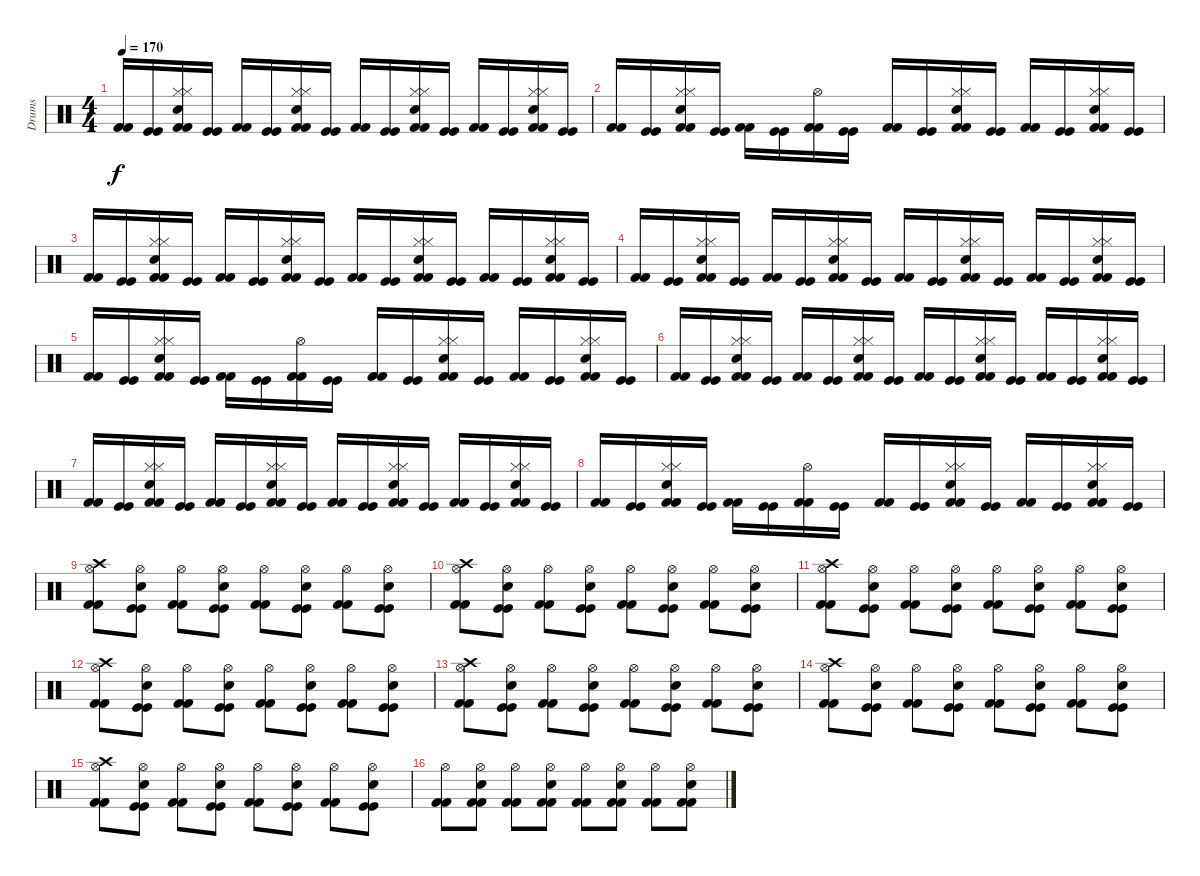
\track ("Drums" "Drums") {instrument percussion}
\staff {score}
\articulation defaults
\ts (4 4)
\tempo 170
\clef neutral
\ks c
("Kick (hit) 2" "Kick (hit) 2").16{dy f} ("Kick (hit)" "Kick (hit)").16 ("Hi-Hat (closed)" "Hi-Hat (closed)" "Electric Snare (hit)" "Kick (hit) 2" "Kick (hit) 2").16 ("Kick (hit)" "Kick (hit)").16 ("Kick (hit) 2" "Kick (hit) 2").16 ("Kick (hit)" "Kick (hit)").16 ("Hi-Hat (closed)" "Hi-Hat (closed)" "Electric Snare (hit)" "Kick (hit) 2" "Kick (hit) 2").16 ("Kick (hit)" "Kick (hit)").16 ("Kick (hit) 2" "Kick (hit) 2").16 ("Kick (hit)" "Kick (hit)").16 ("Hi-Hat (closed)" "Hi-Hat (closed)" "Electric Snare (hit)" "Kick (hit) 2" "Kick (hit) 2").16 ("Kick (hit)" "Kick (hit)").16 ("Kick (hit) 2" "Kick (hit) 2").16 ("Kick (hit)" "Kick (hit)").16 ("Hi-Hat (closed)" "Hi-Hat (closed)" "Electric Snare (hit)" "Kick (hit) 2" "Kick (hit) 2").16 ("Kick (hit)" "Kick (hit)").16 |
("Kick (hit) 2" "Kick (hit) 2").16 ("Kick (hit)" "Kick (hit)").16 ("Hi-Hat (closed)" "Hi-Hat (closed)" "Electric Snare (hit)" "Kick (hit) 2" "Kick (hit) 2").16 ("Kick (hit)" "Kick (hit)").16 ("Kick (hit) 2" "Kick (hit) 2").16 ("Kick (hit)" "Kick (hit)").16 ("Hi-Hat (open)" "Kick (hit) 2" "Kick (hit) 2").16 ("Kick (hit)" "Kick (hit)").16 ("Kick (hit) 2" "Kick (hit) 2").16 ("Kick (hit)" "Kick (hit)").16 ("Hi-Hat (closed)" "Hi-Hat (closed)" "Electric Snare (hit)" "Kick (hit) 2" "Kick (hit) 2").16 ("Kick (hit)" "Kick (hit)").16 ("Kick (hit) 2" "Kick (hit) 2").16 ("Kick (hit)" "Kick (hit)").16 ("Hi-Hat (closed)" "Hi-Hat (closed)" "Electric Snare (hit)" "Kick (hit) 2" "Kick (hit) 2").16 ("Kick (hit)" "Kick (hit)").16 |
("Kick (hit) 2" "Kick (hit) 2").16 ("Kick (hit)" "Kick (hit)").16 ("Hi-Hat (closed)" "Hi-Hat (closed)" "Electric Snare (hit)" "Kick (hit) 2" "Kick (hit) 2").16 ("Kick (hit)" "Kick (hit)").16 ("Kick (hit) 2" "Kick (hit) 2").16 ("Kick (hit)" "Kick (hit)").16 ("Hi-Hat (closed)" "Hi-Hat (closed)" "Electric Snare (hit)" "Kick (hit) 2" "Kick (hit) 2").16 ("Kick (hit)" "Kick (hit)").16 ("Kick (hit) 2" "Kick (hit) 2").16 ("Kick (hit)" "Kick (hit)").16 ("Hi-Hat (closed)" "Hi-Hat (closed)" "Electric Snare (hit)" "Kick (hit) 2" "Kick (hit) 2").16 ("Kick (hit)" "Kick (hit)").16 ("Kick (hit) 2" "Kick (hit) 2").16 ("Kick (hit)" "Kick (hit)").16 ("Hi-Hat (closed)" "Hi-Hat (closed)" "Electric Snare (hit)" "Kick (hit) 2" "Kick (hit) 2").16 ("Kick (hit)" "Kick (hit)").16 |
("Kick (hit) 2" "Kick (hit) 2").16 ("Kick (hit)" "Kick (hit)").16 ("Hi-Hat (closed)" "Hi-Hat (closed)" "Electric Snare (hit)" "Kick (hit) 2" "Kick (hit) 2").16 ("Kick (hit)" "Kick (hit)").16 ("Kick (hit) 2" "Kick (hit) 2").16 ("Kick (hit)" "Kick (hit)").16 ("Hi-Hat (closed)" "Hi-Hat (closed)" "Electric Snare (hit)" "Kick (hit) 2" "Kick (hit) 2").16 ("Kick (hit)" "Kick (hit)").16 ("Kick (hit) 2" "Kick (hit) 2").16 ("Kick (hit)" "Kick (hit)").16 ("Hi-Hat (closed)" "Hi-Hat (closed)" "Electric Snare (hit)" "Kick (hit) 2" "Kick (hit) 2").16 ("Kick (hit)" "Kick (hit)").16 ("Kick (hit) 2" "Kick (hit) 2").16 ("Kick (hit)" "Kick (hit)").16 ("Hi-Hat (closed)" "Hi-Hat (closed)" "Electric Snare (hit)" "Kick (hit) 2" "Kick (hit) 2").16 ("Kick (hit)" "Kick (hit)").16 |
("Kick (hit) 2" "Kick (hit) 2").16 ("Kick (hit)" "Kick (hit)").16 ("Hi-Hat (closed)" "Hi-Hat (closed)" "Electric Snare (hit)" "Kick (hit) 2" "Kick (hit) 2").16 ("Kick (hit)" "Kick (hit)").16 ("Kick (hit) 2" "Kick (hit) 2").16 ("Kick (hit)" "Kick (hit)").16 ("Hi-Hat (open)" "Kick (hit) 2" "Kick (hit) 2").16 ("Kick (hit)" "Kick (hit)").16 ("Kick (hit) 2" "Kick (hit) 2").16 ("Kick (hit)" "Kick (hit)").16 ("Hi-Hat (closed)" "Hi-Hat (closed)" "Electric Snare (hit)" "Kick (hit) 2" "Kick (hit) 2").16 ("Kick (hit)" "Kick (hit)").16 ("Kick (hit) 2" "Kick (hit) 2").16 ("Kick (hit)" "Kick (hit)").16 ("Hi-Hat (closed)" "Hi-Hat (closed)" "Electric Snare (hit)" "Kick (hit) 2" "Kick (hit) 2").16 ("Kick (hit)" "Kick (hit)").16 |
("Kick (hit) 2" "Kick (hit) 2").16 ("Kick (hit)" "Kick (hit)").16 ("Hi-Hat (closed)" "Hi-Hat (closed)" "Electric Snare (hit)" "Kick (hit) 2" "Kick (hit) 2").16 ("Kick (hit)" "Kick (hit)").16 ("Kick (hit) 2" "Kick (hit) 2").16 ("Kick (hit)" "Kick (hit)").16 ("Hi-Hat (closed)" "Hi-Hat (closed)" "Electric Snare (hit)" "Kick (hit) 2" "Kick (hit) 2").16 ("Kick (hit)" "Kick (hit)").16 ("Kick (hit) 2" "Kick (hit) 2").16 ("Kick (hit)" "Kick (hit)").16 ("Hi-Hat (closed)" "Hi-Hat (closed)" "Electric Snare (hit)" "Kick (hit) 2" "Kick (hit) 2").16 ("Kick (hit)" "Kick (hit)").16 ("Kick (hit) 2" "Kick (hit) 2").16 ("Kick (hit)" "Kick (hit)").16 ("Hi-Hat (closed)" "Hi-Hat (closed)" "Electric Snare (hit)" "Kick (hit) 2" "Kick (hit) 2").16 ("Kick (hit)" "Kick (hit)").16 |
("Kick (hit) 2" "Kick (hit) 2").16 ("Kick (hit)" "Kick (hit)").16 ("Hi-Hat (closed)" "Hi-Hat (closed)" "Electric Snare (hit)" "Kick (hit) 2" "Kick (hit) 2").16 ("Kick (hit)" "Kick (hit)").16 ("Kick (hit) 2" "Kick (hit) 2").16 ("Kick (hit)" "Kick (hit)").16 ("Hi-Hat (closed)" "Hi-Hat (closed)" "Electric Snare (hit)" "Kick (hit) 2" "Kick (hit) 2").16 ("Kick (hit)" "Kick (hit)").16 ("Kick (hit) 2" "Kick (hit) 2").16 ("Kick (hit)" "Kick (hit)").16 ("Hi-Hat (closed)" "Hi-Hat (closed)" "Electric Snare (hit)" "Kick (hit) 2" "Kick (hit) 2").16 ("Kick (hit)" "Kick (hit)").16 ("Kick (hit) 2" "Kick (hit) 2").16 ("Kick (hit)" "Kick (hit)").16 ("Hi-Hat (closed)" "Hi-Hat (closed)" "Electric Snare (hit)" "Kick (hit) 2" "Kick (hit) 2").16 ("Kick (hit)" "Kick (hit)").16 |
("Kick (hit) 2" "Kick (hit) 2").16 ("Kick (hit)" "Kick (hit)").16 ("Hi-Hat (closed)" "Hi-Hat (closed)" "Electric Snare (hit)" "Kick (hit) 2" "Kick (hit) 2").16 ("Kick (hit)" "Kick (hit)").16 ("Kick (hit) 2" "Kick (hit) 2").16 ("Kick (hit)" "Kick (hit)").16 ("Hi-Hat (open)" "Kick (hit) 2" "Kick (hit) 2").16 ("Kick (hit)" "Kick (hit)").16 ("Kick (hit) 2" "Kick (hit) 2").16 ("Kick (hit)" "Kick (hit)").16 ("Hi-Hat (closed)" "Hi-Hat (closed)" "Electric Snare (hit)" "Kick (hit) 2" "Kick (hit) 2").16 ("Kick (hit)" "Kick (hit)").16 ("Kick (hit) 2" "Kick (hit) 2").16 ("Kick (hit)" "Kick (hit)").16 ("Hi-Hat (closed)" "Hi-Hat (closed)" "Electric Snare (hit)" "Kick (hit) 2" "Kick (hit) 2").16 ("Kick (hit)" "Kick (hit)").16 |
("Hi-Hat (open)" "Crash high (hit)" "Kick (hit) 2" "Kick (hit) 2").8 ("Hi-Hat (open)" "Electric Snare (hit)" "Kick (hit)" "Kick (hit)").8 ("Hi-Hat (open)" "Kick (hit) 2" "Kick (hit) 2").8 ("Hi-Hat (open)" "Electric Snare (hit)" "Kick (hit)" "Kick (hit)").8 ("Hi-Hat (open)" "Kick (hit) 2" "Kick (hit) 2").8 ("Hi-Hat (open)" "Electric Snare (hit)" "Kick (hit)" "Kick (hit)").8 ("Hi-Hat (open)" "Kick (hit) 2" "Kick (hit) 2").8 ("Hi-Hat (open)" "Electric Snare (hit)" "Kick (hit)" "Kick (hit)").8 |
("Hi-Hat (open)" "Crash high (hit)" "Kick (hit) 2" "Kick (hit) 2").8 ("Hi-Hat (open)" "Electric Snare (hit)" "Kick (hit)" "Kick (hit)").8 ("Hi-Hat (open)" "Kick (hit) 2" "Kick (hit) 2").8 ("Hi-Hat (open)" "Electric Snare (hit)" "Kick (hit)" "Kick (hit)").8 ("Hi-Hat (open)" "Kick (hit) 2" "Kick (hit) 2").8 ("Hi-Hat (open)" "Electric Snare (hit)" "Kick (hit)" "Kick (hit)").8 ("Hi-Hat (open)" "Kick (hit) 2" "Kick (hit) 2").8 ("Hi-Hat (open)" "Electric Snare (hit)" "Kick (hit)" "Kick (hit)").8 |
("Hi-Hat (open)" "Crash high (hit)" "Kick (hit) 2" "Kick (hit) 2").8 ("Hi-Hat (open)" "Electric Snare (hit)" "Kick (hit)" "Kick (hit)").8 ("Hi-Hat (open)" "Kick (hit) 2" "Kick (hit) 2").8 ("Hi-Hat (open)" "Electric Snare (hit)" "Kick (hit)" "Kick (hit)").8 ("Hi-Hat (open)" "Kick (hit) 2" "Kick (hit) 2").8 ("Hi-Hat (open)" "Electric Snare (hit)" "Kick (hit)" "Kick (hit)").8 ("Hi-Hat (open)" "Kick (hit) 2" "Kick (hit) 2").8 ("Hi-Hat (open)" "Electric Snare (hit)" "Kick (hit)" "Kick (hit)").8 |
("Hi-Hat (open)" "Crash high (hit)" "Kick (hit) 2" "Kick (hit) 2").8 ("Hi-Hat (open)" "Electric Snare (hit)" "Kick (hit)" "Kick (hit)").8 ("Hi-Hat (open)" "Kick (hit) 2" "Kick (hit) 2").8 ("Hi-Hat (open)" "Electric Snare (hit)" "Kick (hit)" "Kick (hit)").8 ("Hi-Hat (open)" "Kick (hit) 2" "Kick (hit) 2").8 ("Hi-Hat (open)" "Electric Snare (hit)" "Kick (hit)" "Kick (hit)").8 ("Hi-Hat (open)" "Kick (hit) 2" "Kick (hit) 2").8 ("Hi-Hat (open)" "Electric Snare (hit)" "Kick (hit)" "Kick (hit)").8 |
("Hi-Hat (open)" "Crash high (hit)" "Kick (hit) 2" "Kick (hit) 2").8 ("Hi-Hat (open)" "Electric Snare (hit)" "Kick (hit)" "Kick (hit)").8 ("Hi-Hat (open)" "Kick (hit) 2" "Kick (hit) 2").8 ("Hi-Hat (open)" "Electric Snare (hit)" "Kick (hit)" "Kick (hit)").8 ("Hi-Hat (open)" "Kick (hit) 2" "Kick (hit) 2").8 ("Hi-Hat (open)" "Electric Snare (hit)" "Kick (hit)" "Kick (hit)").8 ("Hi-Hat (open)" "Kick (hit) 2" "Kick (hit) 2").8 ("Hi-Hat (open)" "Electric Snare (hit)" "Kick (hit)" "Kick (hit)").8 |
("Hi-Hat (open)" "Crash high (hit)" "Kick (hit) 2" "Kick (hit) 2").8 ("Hi-Hat (open)" "Electric Snare (hit)" "Kick (hit)" "Kick (hit)").8 ("Hi-Hat (open)" "Kick (hit) 2" "Kick (hit) 2").8 ("Hi-Hat (open)" "Electric Snare (hit)" "Kick (hit)" "Kick (hit)").8 ("Hi-Hat (open)" "Kick (hit) 2" "Kick (hit) 2").8 ("Hi-Hat (open)" "Electric Snare (hit)" "Kick (hit)" "Kick (hit)").8 ("Hi-Hat (open)" "Kick (hit) 2" "Kick (hit) 2").8 ("Hi-Hat (open)" "Electric Snare (hit)" "Kick (hit)" "Kick (hit)").8 |
("Hi-Hat (open)" "Crash high (hit)" "Kick (hit) 2" "Kick (hit) 2").8 ("Hi-Hat (open)" "Electric Snare (hit)" "Kick (hit)" "Kick (hit)").8 ("Hi-Hat (open)" "Kick (hit) 2" "Kick (hit) 2").8 ("Hi-Hat (open)" "Electric Snare (hit)" "Kick (hit)" "Kick (hit)").8 ("Hi-Hat (open)" "Kick (hit) 2" "Kick (hit) 2").8 ("Hi-Hat (open)" "Electric Snare (hit)" "Kick (hit)" "Kick (hit)").8 ("Hi-Hat (open)" "Kick (hit) 2" "Kick (hit) 2").8 ("Hi-Hat (open)" "Electric Snare (hit)" "Kick (hit)" "Kick (hit)").8 |
("Hi-Hat (open)" "Kick (hit) 2" "Kick (hit) 2").8 ("Hi-Hat (open)" "Snare (hit) 2" "Kick (hit) 2" "Kick (hit) 2").8 ("Hi-Hat (open)" "Kick (hit) 2" "Kick (hit) 2").8 ("Hi-Hat (open)" "Snare (hit) 2" "Kick (hit) 2" "Kick (hit) 2").8 ("Hi-Hat (open)" "Kick (hit) 2" "Kick (hit) 2").8 ("Hi-Hat (open)" "Snare (hit) 2" "Kick (hit) 2" "Kick (hit) 2").8 ("Hi-Hat (open)" "Kick (hit) 2" "Kick (hit) 2").8 ("Hi-Hat (open)" "Snare (hit) 2" "Kick (hit) 2" "Kick (hit) 2").8
